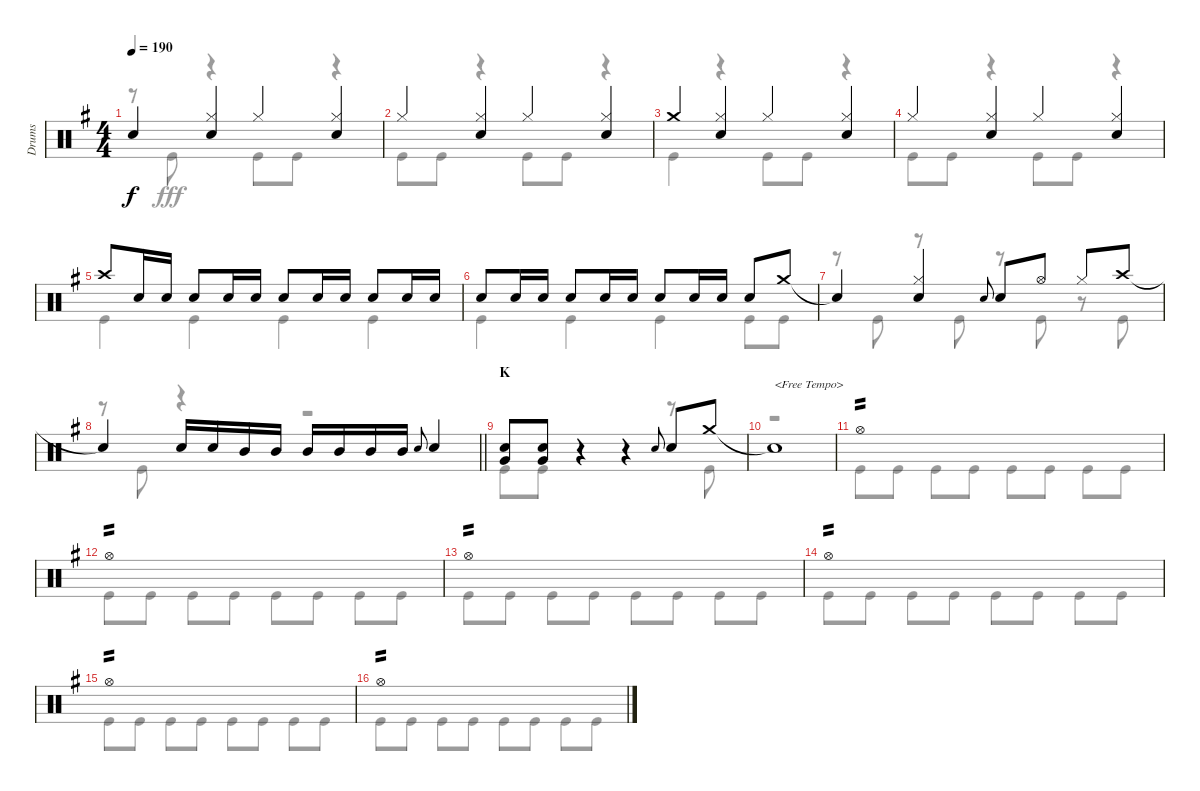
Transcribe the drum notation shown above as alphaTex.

\track ("Drums" "Drums") {instrument percussion}
\staff {score}
\articulation defaults
\voice
\ts (4 4)
\tempo 190
\clef neutral
\ks g "Snare (hit)"{t}.4{dy f}
("Hi-Hat (closed)" "Snare (hit) 2").4 "Hi-Hat (closed)".4 ("Hi-Hat (closed)" "Snare (hit) 2").4 |
"Hi-Hat (closed)".4 ("Hi-Hat (closed)" "Snare (hit) 2").4 "Hi-Hat (closed)".4 ("Hi-Hat (closed)" "Snare (hit) 2").4 |
"Crash medium (hit)".4 ("Hi-Hat (closed)" "Snare (hit) 2").4 "Hi-Hat (closed)".4 ("Hi-Hat (closed)" "Snare (hit) 2").4 |
"Hi-Hat (closed)".4 ("Hi-Hat (closed)" "Snare (hit) 2").4 "Hi-Hat (closed)".4 ("Hi-Hat (closed)" "Snare (hit) 2").4 |
"Crash high (hit)".8 "Snare (hit) 2".16 "Snare (hit) 2".16 "Snare (hit) 2".8 "Snare (hit) 2".16 "Snare (hit) 2".16 "Snare (hit) 2".8 "Snare (hit) 2".16 "Snare (hit) 2".16 "Snare (hit) 2".8 "Snare (hit) 2".16 "Snare (hit) 2".16 |
"Snare (hit) 2".8 "Snare (hit) 2".16 "Snare (hit) 2".16 "Snare (hit) 2".8 "Snare (hit) 2".16 "Snare (hit) 2".16 "Snare (hit) 2".8 "Snare (hit) 2".16 "Snare (hit) 2".16 "Snare (hit) 2".8 "Crash medium (hit)".8 |
"Snare (hit)"{t}.4 ("Hi-Hat (closed)" "Snare (hit) 2").4 "Snare (hit) 2".8{gr onbeat} "Snare (hit) 2".8 "Hi-Hat (open)".8 "Hi-Hat (closed)".8 "Crash high (hit)".8 |
\barLineRight lightlight "Snare (hit)"{t}.4 "Snare (hit) 2".16 "Snare (hit) 2".16 "Mid Tom (hit)".16 "Mid Tom (hit)".16 "Mid Tom (hit)".16 "Mid Tom (hit)".16 "Mid Tom (hit)".16 "Mid Tom (hit)".16 "Snare (hit) 2".8{gr onbeat} "Snare (hit) 2".4
|
\section ("" "K")
("Snare (hit) 2" "Very Low Tom (hit)").8 ("Snare (hit) 2" "Very Low Tom (hit)").8 r.4 r.4 "Snare (hit) 2".8{gr onbeat} "Snare (hit) 2".8 "Crash medium (hit)".8 |
"Snare (hit)"{t}.1{txt "<Free Tempo>"} |
"Hi-Hat (open)".1{tp 2} |
"Hi-Hat (open)".1{tp 2} |
"Hi-Hat (open)".1{tp 2} |
"Hi-Hat (open)".1{tp 2} |
"Hi-Hat (open)".1{tp 2} |
"Hi-Hat (open)".1{tp 2}
\voice
\clef neutral
\ottava regular
\simile none
\ks g
r.8{dy fff} "Kick (hit)".8 r.4 "Kick (hit)".8 "Kick (hit)".8 r.4 |
"Kick (hit)".8 "Kick (hit)".8 r.4 "Kick (hit)".8 "Kick (hit)".8 r.4 |
"Kick (hit)".4 r.4 "Kick (hit)".8 "Kick (hit)".8 r.4 |
"Kick (hit)".8 "Kick (hit)".8 r.4 "Kick (hit)".8 "Kick (hit)".8 r.4 |
"Kick (hit)".4 "Kick (hit)".4 "Kick (hit)".4 "Kick (hit)".4 |
"Kick (hit)".4 "Kick (hit)".4 "Kick (hit)".4 "Kick (hit)".8 "Kick (hit)".8 |
r.8 "Kick (hit)".8 r.8 "Kick (hit)".8 r.8 "Kick (hit)".8 r.8 "Kick (hit)".8 |
\barLineRight lightlight
r.8 "Kick (hit)".8 r.4 r.2 |
"Kick (hit)".8 "Kick (hit)".8 r.4 r.4 r.8 "Kick (hit)".8 |
r.1 |
"Kick (hit)".8 "Kick (hit)".8 "Kick (hit)".8 "Kick (hit)".8 "Kick (hit)".8 "Kick (hit)".8 "Kick (hit)".8 "Kick (hit)".8 |
"Kick (hit)".8 "Kick (hit)".8 "Kick (hit)".8 "Kick (hit)".8 "Kick (hit)".8 "Kick (hit)".8 "Kick (hit)".8 "Kick (hit)".8 |
"Kick (hit)".8 "Kick (hit)".8 "Kick (hit)".8 "Kick (hit)".8 "Kick (hit)".8 "Kick (hit)".8 "Kick (hit)".8 "Kick (hit)".8 |
"Kick (hit)".8 "Kick (hit)".8 "Kick (hit)".8 "Kick (hit)".8 "Kick (hit)".8 "Kick (hit)".8 "Kick (hit)".8 "Kick (hit)".8 |
"Kick (hit)".8 "Kick (hit)".8 "Kick (hit)".8 "Kick (hit)".8 "Kick (hit)".8 "Kick (hit)".8 "Kick (hit)".8 "Kick (hit)".8 |
"Kick (hit)".8 "Kick (hit)".8 "Kick (hit)".8 "Kick (hit)".8 "Kick (hit)".8 "Kick (hit)".8 "Kick (hit)".8 "Kick (hit)".8
